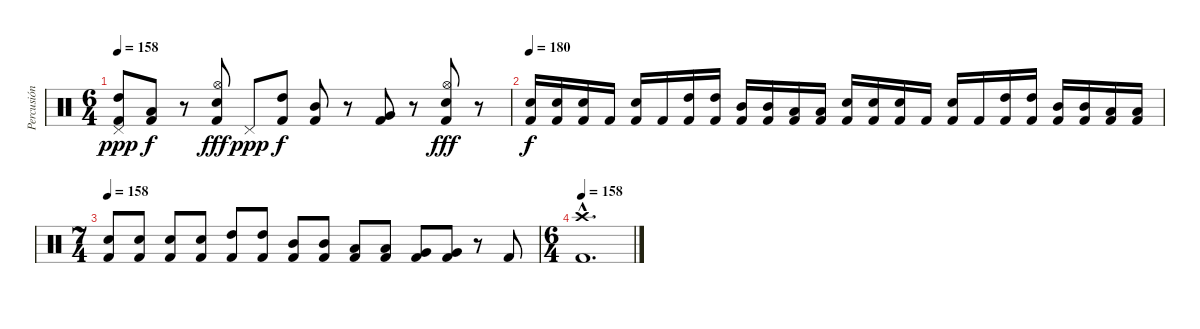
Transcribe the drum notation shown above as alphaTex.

\track ("Percusión" "Percusión") {instrument percussion}
\staff {score}
\articulation defaults
\ts (6 4)
\tempo 158
\clef neutral
\ks c
("Pedal Hi-Hat (hit)" "High Tom (hit)" "Kick (hit) 2").8{dy ppp} ("Low Tom (hit)" "Kick (hit) 2").8{dy f} r.8 ("Hi-Hat (open)" "Electric Snare (hit)" "Kick (hit) 2").8{dy fff} "Pedal Hi-Hat (hit)".8{dy ppp} ("High Tom (hit)" "Kick (hit) 2").8{dy f} ("Mid Tom (hit)" "Kick (hit) 2").8 r.8 ("Very Low Tom (hit)" "Kick (hit) 2").8 r.8 ("Hi-Hat (open)" "Electric Snare (hit)" "Kick (hit) 2").8{dy fff} r.8 |
\tempo 180
("Electric Snare (hit)" "Kick (hit) 2").16{dy f} ("Electric Snare (hit)" "Kick (hit) 2").16 ("Electric Snare (hit)" "Kick (hit) 2").16 "Kick (hit) 2".16 ("Electric Snare (hit)" "Kick (hit) 2").16 "Kick (hit) 2".16 ("High Tom (hit)" "Kick (hit) 2").16 ("High Tom (hit)" "Kick (hit) 2").16 ("Mid Tom (hit)" "Kick (hit) 2").16 ("Mid Tom (hit)" "Kick (hit) 2").16 ("Low Tom (hit)" "Kick (hit) 2").16 ("Low Tom (hit)" "Kick (hit) 2").16 ("Electric Snare (hit)" "Kick (hit) 2").16 ("Electric Snare (hit)" "Kick (hit) 2").16 ("Electric Snare (hit)" "Kick (hit) 2").16 "Kick (hit) 2".16 ("Electric Snare (hit)" "Kick (hit) 2").16 "Kick (hit) 2".16 ("High Tom (hit)" "Kick (hit) 2").16 ("High Tom (hit)" "Kick (hit) 2").16 ("Mid Tom (hit)" "Kick (hit) 2").16 ("Mid Tom (hit)" "Kick (hit) 2").16 ("Low Tom (hit)" "Kick (hit) 2").16 ("Low Tom (hit)" "Kick (hit) 2").16 |
\ts (7 4)
\tempo 158
("Electric Snare (hit)" "Kick (hit) 2").8 ("Electric Snare (hit)" "Kick (hit) 2").8 ("Electric Snare (hit)" "Kick (hit) 2").8 ("Electric Snare (hit)" "Kick (hit) 2").8 ("High Tom (hit)" "Kick (hit) 2").8 ("High Tom (hit)" "Kick (hit) 2").8 ("Mid Tom (hit)" "Kick (hit) 2").8 ("Mid Tom (hit)" "Kick (hit) 2").8 ("Low Tom (hit)" "Kick (hit) 2").8 ("Low Tom (hit)" "Kick (hit) 2").8 ("Very Low Tom (hit)" "Kick (hit) 2").8 ("Very Low Tom (hit)" "Kick (hit) 2").8 r.8 "Kick (hit) 2".8 |
\ts (6 4)
\tempo 158
("Crash high (hit)"{hac} "Kick (hit) 2"{hac}).1{d}
